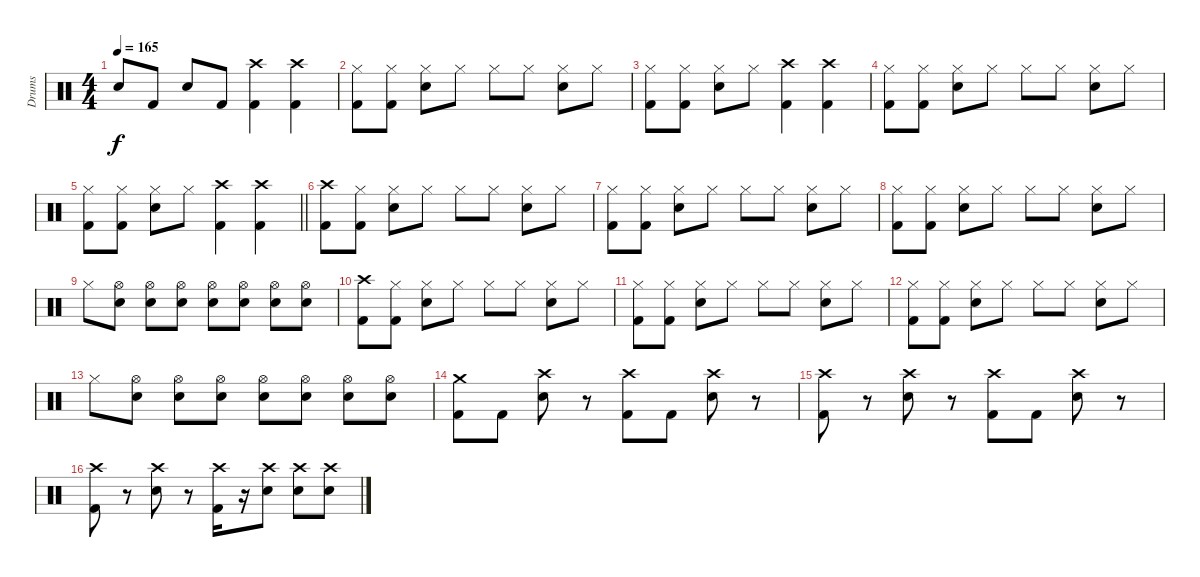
\track ("Drums" "Drums") {instrument percussion}
\staff {score}
\articulation defaults
\ts (4 4)
\tempo 165
\clef neutral
\ks c "Electric Snare (hit)".8{dy f} "Kick (hit) 2".8 "Electric Snare (hit)".8 "Kick (hit) 2".8
("Crash high (hit)" "Kick (hit) 2").4 ("Crash high (hit)" "Kick (hit) 2").4 |
("Hi-Hat (closed)" "Kick (hit) 2").8 ("Hi-Hat (closed)" "Kick (hit) 2").8 ("Hi-Hat (closed)" "Electric Snare (hit)").8 "Hi-Hat (closed)".8 "Hi-Hat (closed)".8 "Hi-Hat (closed)".8 ("Hi-Hat (closed)" "Electric Snare (hit)").8 "Hi-Hat (closed)".8 |
("Hi-Hat (closed)" "Kick (hit) 2").8 ("Hi-Hat (closed)" "Kick (hit) 2").8 ("Hi-Hat (closed)" "Electric Snare (hit)").8 "Hi-Hat (closed)".8 ("Crash high (hit)" "Kick (hit) 2").4 ("Crash high (hit)" "Kick (hit) 2").4 |
("Hi-Hat (closed)" "Kick (hit) 2").8 ("Hi-Hat (closed)" "Kick (hit) 2").8 ("Hi-Hat (closed)" "Electric Snare (hit)").8 "Hi-Hat (closed)".8 "Hi-Hat (closed)".8 "Hi-Hat (closed)".8 ("Hi-Hat (closed)" "Electric Snare (hit)").8 "Hi-Hat (closed)".8 |
\barLineRight lightlight
("Hi-Hat (closed)" "Kick (hit) 2").8 ("Hi-Hat (closed)" "Kick (hit) 2").8 ("Hi-Hat (closed)" "Electric Snare (hit)").8 "Hi-Hat (closed)".8 ("Crash high (hit)" "Kick (hit) 2").4 ("Crash high (hit)" "Kick (hit) 2").4 |
\section ("" "")
("Crash high (hit)" "Kick (hit) 2").8 ("Hi-Hat (closed)" "Kick (hit) 2").8 ("Hi-Hat (closed)" "Electric Snare (hit)").8 "Hi-Hat (closed)".8 "Hi-Hat (closed)".8 "Hi-Hat (closed)".8 ("Hi-Hat (closed)" "Electric Snare (hit)").8 "Hi-Hat (closed)".8 |
("Hi-Hat (closed)" "Kick (hit) 2").8 ("Hi-Hat (closed)" "Kick (hit) 2").8 ("Hi-Hat (closed)" "Electric Snare (hit)").8 "Hi-Hat (closed)".8 "Hi-Hat (closed)".8 "Hi-Hat (closed)".8 ("Hi-Hat (closed)" "Electric Snare (hit)").8 "Hi-Hat (closed)".8 |
("Hi-Hat (closed)" "Kick (hit) 2").8 ("Hi-Hat (closed)" "Kick (hit) 2").8 ("Hi-Hat (closed)" "Electric Snare (hit)").8 "Hi-Hat (closed)".8 "Hi-Hat (closed)".8 "Hi-Hat (closed)".8 ("Hi-Hat (closed)" "Electric Snare (hit)").8 "Hi-Hat (closed)".8 |
"Hi-Hat (closed)".8 ("Hi-Hat (open)" "Electric Snare (hit)").8 ("Hi-Hat (open)" "Electric Snare (hit)").8 ("Hi-Hat (open)" "Electric Snare (hit)").8 ("Hi-Hat (open)" "Electric Snare (hit)").8 ("Hi-Hat (open)" "Electric Snare (hit)").8 ("Hi-Hat (open)" "Electric Snare (hit)").8 ("Hi-Hat (open)" "Electric Snare (hit)").8 |
("Crash high (hit)" "Kick (hit) 2").8 ("Hi-Hat (closed)" "Kick (hit) 2").8 ("Hi-Hat (closed)" "Electric Snare (hit)").8 "Hi-Hat (closed)".8 "Hi-Hat (closed)".8 "Hi-Hat (closed)".8 ("Hi-Hat (closed)" "Electric Snare (hit)").8 "Hi-Hat (closed)".8 |
("Hi-Hat (closed)" "Kick (hit) 2").8 ("Hi-Hat (closed)" "Kick (hit) 2").8 ("Hi-Hat (closed)" "Electric Snare (hit)").8 "Hi-Hat (closed)".8 "Hi-Hat (closed)".8 "Hi-Hat (closed)".8 ("Hi-Hat (closed)" "Electric Snare (hit)").8 "Hi-Hat (closed)".8 |
("Hi-Hat (closed)" "Kick (hit) 2").8 ("Hi-Hat (closed)" "Kick (hit) 2").8 ("Hi-Hat (closed)" "Electric Snare (hit)").8 "Hi-Hat (closed)".8 "Hi-Hat (closed)".8 "Hi-Hat (closed)".8 ("Hi-Hat (closed)" "Electric Snare (hit)").8 "Hi-Hat (closed)".8 |
"Hi-Hat (closed)".8 ("Hi-Hat (open)" "Electric Snare (hit)").8 ("Hi-Hat (open)" "Electric Snare (hit)").8 ("Hi-Hat (open)" "Electric Snare (hit)").8 ("Hi-Hat (open)" "Electric Snare (hit)").8 ("Hi-Hat (open)" "Electric Snare (hit)").8 ("Hi-Hat (open)" "Electric Snare (hit)").8 ("Hi-Hat (open)" "Electric Snare (hit)").8 |
("Crash medium (hit)" "Kick (hit) 2").8 "Kick (hit) 2".8 ("Crash high (hit)" "Electric Snare (hit)").8 r.8 ("Crash high (hit)" "Kick (hit) 2").8 "Kick (hit) 2".8 ("Crash high (hit)" "Electric Snare (hit)").8 r.8 |
("Crash high (hit)" "Kick (hit) 2").8 r.8 ("Crash high (hit)" "Electric Snare (hit)").8 r.8 ("Crash high (hit)" "Kick (hit) 2").8 "Kick (hit) 2".8 ("Crash high (hit)" "Electric Snare (hit)").8 r.8 |
("Crash high (hit)" "Kick (hit) 2").8 r.8 ("Crash high (hit)" "Electric Snare (hit)").8 r.8 ("Crash high (hit)" "Kick (hit) 2").16 r.16 ("Crash high (hit)" "Electric Snare (hit)").8 ("Crash high (hit)" "Electric Snare (hit)").8 ("Crash high (hit)" "Electric Snare (hit)").8
